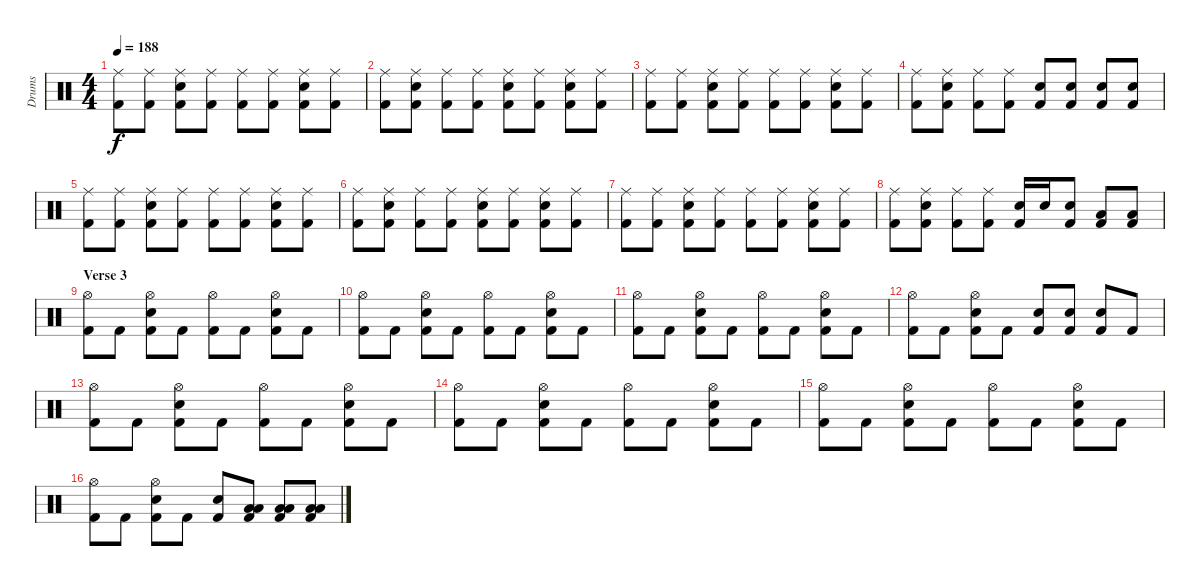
\track ("Drums" "Drums") {instrument percussion}
\staff {score}
\articulation defaults
\ts (4 4)
\tempo 188
\clef neutral
\ks c
("Kick (hit) 2" "Ride (middle)").8{dy f} ("Kick (hit) 2" "Ride (middle)").8 ("Kick (hit) 2" "Snare (hit) 2" "Ride (middle)").8 ("Kick (hit) 2" "Ride (middle)").8 ("Kick (hit) 2" "Ride (middle)").8 ("Kick (hit) 2" "Ride (middle)").8 ("Kick (hit) 2" "Snare (hit) 2" "Ride (middle)").8 ("Kick (hit) 2" "Ride (middle)").8 |
("Kick (hit) 2" "Ride (middle)").8 ("Kick (hit) 2" "Snare (hit) 2" "Ride (middle)").8 ("Kick (hit) 2" "Ride (middle)").8 ("Kick (hit) 2" "Ride (middle)").8 ("Kick (hit) 2" "Snare (hit) 2" "Ride (middle)").8 ("Kick (hit) 2" "Ride (middle)").8 ("Kick (hit) 2" "Snare (hit) 2" "Ride (middle)").8 ("Kick (hit) 2" "Ride (middle)").8 |
("Kick (hit) 2" "Ride (middle)").8 ("Kick (hit) 2" "Ride (middle)").8 ("Kick (hit) 2" "Snare (hit) 2" "Ride (middle)").8 ("Kick (hit) 2" "Ride (middle)").8 ("Kick (hit) 2" "Ride (middle)").8 ("Kick (hit) 2" "Ride (middle)").8 ("Kick (hit) 2" "Snare (hit) 2" "Ride (middle)").8 ("Kick (hit) 2" "Ride (middle)").8 |
("Kick (hit) 2" "Ride (middle)").8 ("Kick (hit) 2" "Snare (hit) 2" "Ride (middle)").8 ("Kick (hit) 2" "Ride (middle)").8 ("Kick (hit) 2" "Ride (middle)").8 ("Kick (hit) 2" "Snare (hit) 2").8 ("Kick (hit) 2" "Snare (hit) 2").8 ("Kick (hit) 2" "Snare (hit) 2").8 ("Kick (hit) 2" "Snare (hit) 2").8 |
("Kick (hit) 2" "Ride (middle)").8 ("Kick (hit) 2" "Ride (middle)").8 ("Kick (hit) 2" "Snare (hit) 2" "Ride (middle)").8 ("Kick (hit) 2" "Ride (middle)").8 ("Kick (hit) 2" "Ride (middle)").8 ("Kick (hit) 2" "Ride (middle)").8 ("Kick (hit) 2" "Snare (hit) 2" "Ride (middle)").8 ("Kick (hit) 2" "Ride (middle)").8 |
("Kick (hit) 2" "Ride (middle)").8 ("Kick (hit) 2" "Snare (hit) 2" "Ride (middle)").8 ("Kick (hit) 2" "Ride (middle)").8 ("Kick (hit) 2" "Ride (middle)").8 ("Kick (hit) 2" "Snare (hit) 2" "Ride (middle)").8 ("Kick (hit) 2" "Ride (middle)").8 ("Kick (hit) 2" "Snare (hit) 2" "Ride (middle)").8 ("Kick (hit) 2" "Ride (middle)").8 |
("Kick (hit) 2" "Ride (middle)").8 ("Kick (hit) 2" "Ride (middle)").8 ("Kick (hit) 2" "Snare (hit) 2" "Ride (middle)").8 ("Kick (hit) 2" "Ride (middle)").8 ("Kick (hit) 2" "Ride (middle)").8 ("Kick (hit) 2" "Ride (middle)").8 ("Kick (hit) 2" "Snare (hit) 2" "Ride (middle)").8 ("Kick (hit) 2" "Ride (middle)").8 |
("Kick (hit) 2" "Ride (middle)").8 ("Kick (hit) 2" "Snare (hit) 2" "Ride (middle)").8 ("Kick (hit) 2" "Ride (middle)").8 ("Kick (hit) 2" "Ride (middle)").8 ("Kick (hit) 2" "Snare (hit) 2").16 "Snare (hit) 2".16 ("Kick (hit) 2" "Snare (hit) 2").8 ("Kick (hit) 2" "Low Tom (hit)").8 ("Kick (hit) 2" "Low Tom (hit)").8 |
\section ("" "Verse 3")
("Kick (hit) 2" "Hi-Hat (open)").8 "Kick (hit) 2".8 ("Kick (hit) 2" "Snare (hit) 2" "Hi-Hat (open)").8 "Kick (hit) 2".8 ("Kick (hit) 2" "Hi-Hat (open)").8 "Kick (hit) 2".8 ("Kick (hit) 2" "Snare (hit) 2" "Hi-Hat (open)").8 "Kick (hit) 2".8 |
("Kick (hit) 2" "Hi-Hat (open)").8 "Kick (hit) 2".8 ("Kick (hit) 2" "Snare (hit) 2" "Hi-Hat (open)").8 "Kick (hit) 2".8 ("Kick (hit) 2" "Hi-Hat (open)").8 "Kick (hit) 2".8 ("Kick (hit) 2" "Snare (hit) 2" "Hi-Hat (open)").8 "Kick (hit) 2".8 |
("Kick (hit) 2" "Hi-Hat (open)").8 "Kick (hit) 2".8 ("Kick (hit) 2" "Snare (hit) 2" "Hi-Hat (open)").8 "Kick (hit) 2".8 ("Kick (hit) 2" "Hi-Hat (open)").8 "Kick (hit) 2".8 ("Kick (hit) 2" "Snare (hit) 2" "Hi-Hat (open)").8 "Kick (hit) 2".8 |
("Kick (hit) 2" "Hi-Hat (open)").8 "Kick (hit) 2".8 ("Kick (hit) 2" "Snare (hit) 2" "Hi-Hat (open)").8 "Kick (hit) 2".8 ("Kick (hit) 2" "Snare (hit) 2").8 ("Kick (hit) 2" "Snare (hit) 2").8 ("Kick (hit) 2" "Snare (hit) 2").8 "Kick (hit) 2".8 |
("Kick (hit) 2" "Hi-Hat (open)").8 "Kick (hit) 2".8 ("Kick (hit) 2" "Snare (hit) 2" "Hi-Hat (open)").8 "Kick (hit) 2".8 ("Kick (hit) 2" "Hi-Hat (open)").8 "Kick (hit) 2".8 ("Kick (hit) 2" "Snare (hit) 2" "Hi-Hat (open)").8 "Kick (hit) 2".8 |
("Kick (hit) 2" "Hi-Hat (open)").8 "Kick (hit) 2".8 ("Kick (hit) 2" "Snare (hit) 2" "Hi-Hat (open)").8 "Kick (hit) 2".8 ("Kick (hit) 2" "Hi-Hat (open)").8 "Kick (hit) 2".8 ("Kick (hit) 2" "Snare (hit) 2" "Hi-Hat (open)").8 "Kick (hit) 2".8 |
("Kick (hit) 2" "Hi-Hat (open)").8 "Kick (hit) 2".8 ("Kick (hit) 2" "Snare (hit) 2" "Hi-Hat (open)").8 "Kick (hit) 2".8 ("Kick (hit) 2" "Hi-Hat (open)").8 "Kick (hit) 2".8 ("Kick (hit) 2" "Snare (hit) 2" "Hi-Hat (open)").8 "Kick (hit) 2".8 |
("Kick (hit) 2" "Hi-Hat (open)").8 "Kick (hit) 2".8 ("Kick (hit) 2" "Snare (hit) 2" "Hi-Hat (open)").8 "Kick (hit) 2".8 ("Kick (hit) 2" "Snare (hit) 2").8 ("Kick (hit) 2" "Low Tom (hit)" "Low Tom (hit)").8 ("Kick (hit) 2" "Low Tom (hit)" "Low Tom (hit)").8 ("Kick (hit) 2" "Low Tom (hit)" "Low Tom (hit)").8
